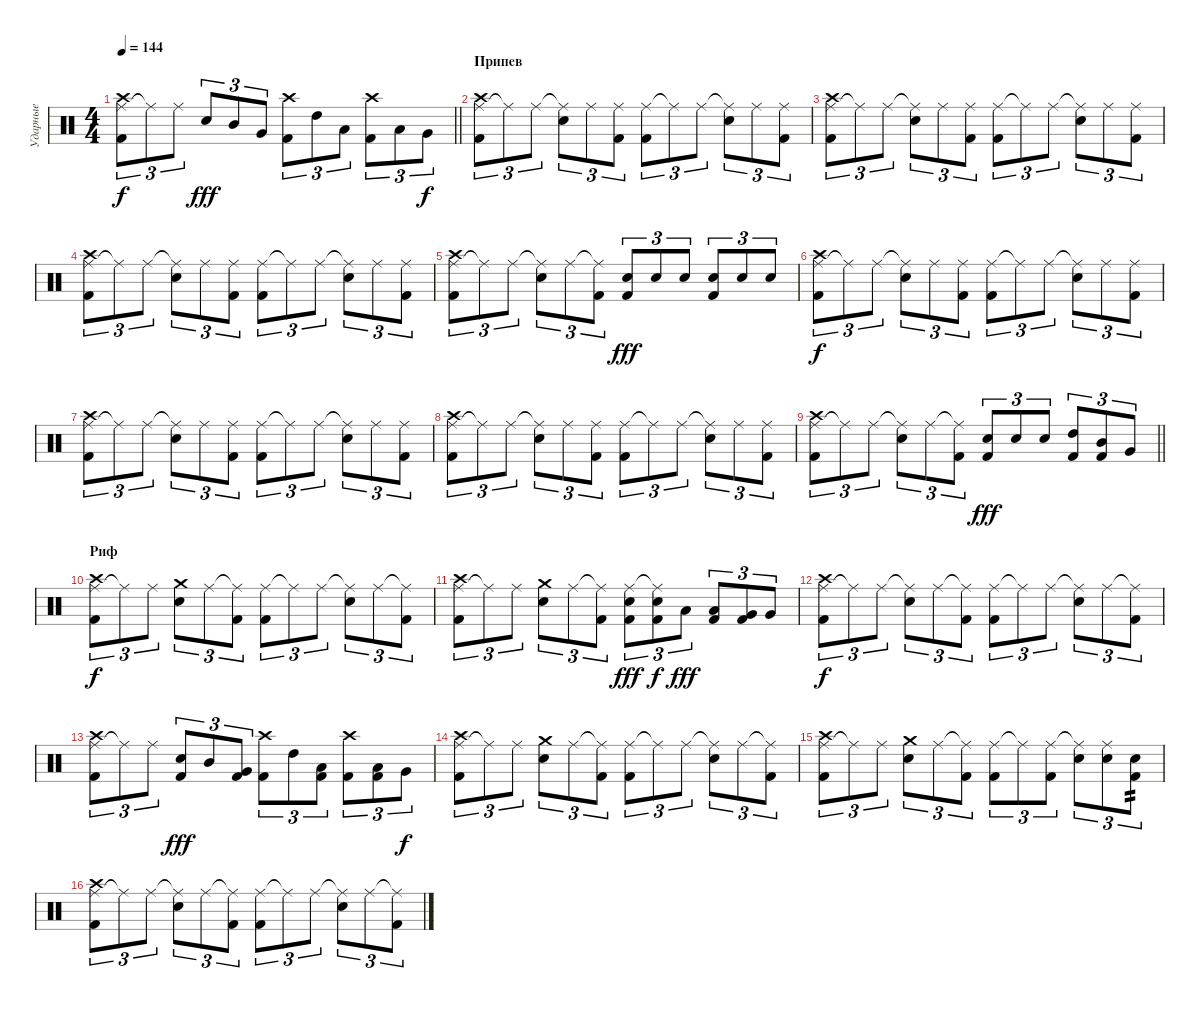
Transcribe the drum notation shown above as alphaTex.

\track ("Ударные" "Ударные") {instrument percussion}
\staff {score}
\articulation defaults
\ts (4 4)
\tempo 144
\clef neutral
\barLineRight lightlight
\ks c
("Ride (middle)" "Kick (hit) 2" "Crash high (hit)").8{tu (3 2) dy f} "Ride (middle)"{t}.8{tu (3 2)} "Ride (middle)".8{tu (3 2)} "Snare (hit) 2".8{tu (3 2) dy fff} "Mid Tom (hit)".8{tu (3 2)} "Very Low Tom (hit)".8{tu (3 2)} ("Kick (hit) 2" "Crash high (hit)").8{tu (3 2)} "High Tom (hit)".8{tu (3 2)} "Low Tom (hit)".8{tu (3 2)} ("Crash high (hit)" "Kick (hit) 2").8{tu (3 2)} "Low Tom (hit)".8{tu (3 2)} "Very Low Tom (hit)".8{tu (3 2) dy f} |
\section ("" "Припев")
("Ride (middle)" "Kick (hit) 2" "Crash high (hit)").8{tu (3 2)} "Ride (middle)"{t}.8{tu (3 2)} "Ride (middle)".8{tu (3 2)} ("Ride (middle)"{t} "Snare (hit) 2").8{tu (3 2)} "Ride (middle)".8{tu (3 2)} ("Ride (middle)" "Kick (hit) 2").8{tu (3 2)} ("Ride (middle)" "Kick (hit) 2").8{tu (3 2)} "Ride (middle)"{t}.8{tu (3 2)} "Ride (middle)".8{tu (3 2)} ("Ride (middle)"{t} "Snare (hit) 2").8{tu (3 2)} "Ride (middle)".8{tu (3 2)} ("Ride (middle)" "Kick (hit) 2").8{tu (3 2)} |
("Ride (middle)" "Kick (hit) 2" "Crash high (hit)").8{tu (3 2)} "Ride (middle)"{t}.8{tu (3 2)} "Ride (middle)".8{tu (3 2)} ("Ride (middle)"{t} "Snare (hit) 2").8{tu (3 2)} "Ride (middle)".8{tu (3 2)} ("Ride (middle)" "Kick (hit) 2").8{tu (3 2)} ("Ride (middle)" "Kick (hit) 2").8{tu (3 2)} "Ride (middle)"{t}.8{tu (3 2)} "Ride (middle)".8{tu (3 2)} ("Ride (middle)"{t} "Snare (hit) 2").8{tu (3 2)} "Ride (middle)".8{tu (3 2)} ("Ride (middle)" "Kick (hit) 2").8{tu (3 2)} |
("Ride (middle)" "Kick (hit) 2" "Crash high (hit)").8{tu (3 2)} "Ride (middle)"{t}.8{tu (3 2)} "Ride (middle)".8{tu (3 2)} ("Ride (middle)"{t} "Snare (hit) 2").8{tu (3 2)} "Ride (middle)".8{tu (3 2)} ("Ride (middle)" "Kick (hit) 2").8{tu (3 2)} ("Ride (middle)" "Kick (hit) 2").8{tu (3 2)} "Ride (middle)"{t}.8{tu (3 2)} "Ride (middle)".8{tu (3 2)} ("Ride (middle)"{t} "Snare (hit) 2").8{tu (3 2)} "Ride (middle)".8{tu (3 2)} ("Ride (middle)" "Kick (hit) 2").8{tu (3 2)} |
("Ride (middle)" "Kick (hit) 2" "Crash high (hit)").8{tu (3 2)} "Ride (middle)"{t}.8{tu (3 2)} "Ride (middle)".8{tu (3 2)} ("Ride (middle)"{t} "Snare (hit) 2").8{tu (3 2)} "Ride (middle)".8{tu (3 2)} ("Ride (middle)"{t} "Kick (hit) 2").8{tu (3 2)} ("Snare (hit) 2" "Kick (hit) 2").8{tu (3 2) dy fff} "Snare (hit) 2".8{tu (3 2)} "Snare (hit) 2".8{tu (3 2)} ("Snare (hit) 2" "Kick (hit) 2").8{tu (3 2)} "Snare (hit) 2".8{tu (3 2)} "Snare (hit) 2".8{tu (3 2)} |
("Ride (middle)" "Kick (hit) 2" "Crash high (hit)").8{tu (3 2) dy f} "Ride (middle)"{t}.8{tu (3 2)} "Ride (middle)".8{tu (3 2)} ("Ride (middle)"{t} "Snare (hit) 2").8{tu (3 2)} "Ride (middle)".8{tu (3 2)} ("Ride (middle)" "Kick (hit) 2").8{tu (3 2)} ("Ride (middle)" "Kick (hit) 2").8{tu (3 2)} "Ride (middle)"{t}.8{tu (3 2)} "Ride (middle)".8{tu (3 2)} ("Ride (middle)"{t} "Snare (hit) 2").8{tu (3 2)} "Ride (middle)".8{tu (3 2)} ("Ride (middle)" "Kick (hit) 2").8{tu (3 2)} |
("Ride (middle)" "Kick (hit) 2" "Crash high (hit)").8{tu (3 2)} "Ride (middle)"{t}.8{tu (3 2)} "Ride (middle)".8{tu (3 2)} ("Ride (middle)"{t} "Snare (hit) 2").8{tu (3 2)} "Ride (middle)".8{tu (3 2)} ("Ride (middle)" "Kick (hit) 2").8{tu (3 2)} ("Ride (middle)" "Kick (hit) 2").8{tu (3 2)} "Ride (middle)"{t}.8{tu (3 2)} "Ride (middle)".8{tu (3 2)} ("Ride (middle)"{t} "Snare (hit) 2").8{tu (3 2)} "Ride (middle)".8{tu (3 2)} ("Ride (middle)" "Kick (hit) 2").8{tu (3 2)} |
("Ride (middle)" "Kick (hit) 2" "Crash high (hit)").8{tu (3 2)} "Ride (middle)"{t}.8{tu (3 2)} "Ride (middle)".8{tu (3 2)} ("Ride (middle)"{t} "Snare (hit) 2").8{tu (3 2)} "Ride (middle)".8{tu (3 2)} ("Ride (middle)" "Kick (hit) 2").8{tu (3 2)} ("Ride (middle)" "Kick (hit) 2").8{tu (3 2)} "Ride (middle)"{t}.8{tu (3 2)} "Ride (middle)".8{tu (3 2)} ("Ride (middle)"{t} "Snare (hit) 2").8{tu (3 2)} "Ride (middle)".8{tu (3 2)} ("Ride (middle)" "Kick (hit) 2").8{tu (3 2)} |
\barLineRight lightlight
("Ride (middle)" "Kick (hit) 2" "Crash high (hit)").8{tu (3 2)} "Ride (middle)"{t}.8{tu (3 2)} "Ride (middle)".8{tu (3 2)} ("Ride (middle)"{t} "Snare (hit) 2").8{tu (3 2)} "Ride (middle)".8{tu (3 2)} ("Ride (middle)"{t} "Kick (hit) 2").8{tu (3 2)} ("Snare (hit) 2" "Kick (hit) 2").8{tu (3 2) dy fff} "Snare (hit) 2".8{tu (3 2)} "Snare (hit) 2".8{tu (3 2)} ("High Tom (hit)" "Kick (hit) 2").8{tu (3 2)} ("Mid Tom (hit)" "Kick (hit) 2").8{tu (3 2)} "Very Low Tom (hit)".8{tu (3 2)} |
\section ("" "Риф")
("Ride (middle)" "Kick (hit) 2" "Crash high (hit)").8{tu (3 2) dy f} "Ride (middle)"{t}.8{tu (3 2)} "Ride (middle)".8{tu (3 2)} ("Crash medium (hit)" "Snare (hit) 2").8{tu (3 2)} "Ride (middle)".8{tu (3 2)} ("Ride (middle)"{t} "Kick (hit) 2").8{tu (3 2)} ("Ride (middle)" "Kick (hit) 2").8{tu (3 2)} "Ride (middle)"{t}.8{tu (3 2)} "Ride (middle)".8{tu (3 2)} ("Ride (middle)"{t} "Snare (hit) 2").8{tu (3 2)} "Ride (middle)".8{tu (3 2)} ("Ride (middle)"{t} "Kick (hit) 2").8{tu (3 2)} |
("Ride (middle)" "Kick (hit) 2" "Crash high (hit)").8{tu (3 2)} "Ride (middle)"{t}.8{tu (3 2)} "Ride (middle)".8{tu (3 2)} ("Crash medium (hit)" "Snare (hit) 2").8{tu (3 2)} "Ride (middle)".8{tu (3 2)} ("Ride (middle)"{t} "Kick (hit) 2").8{tu (3 2)} ("Snare (hit) 2" "Ride (middle)" "Kick (hit) 2").8{tu (3 2) dy fff} ("Snare (hit) 2" "Ride (middle)"{t} "Kick (hit) 2").8{tu (3 2) dy f} "Low Tom (hit)".8{tu (3 2) dy fff} ("Low Tom (hit)" "Kick (hit) 2").8{tu (3 2)} ("Very Low Tom (hit)" "Kick (hit) 2").8{tu (3 2)} "Very Low Tom (hit)".8{tu (3 2)} |
("Ride (middle)" "Kick (hit) 2" "Crash high (hit)").8{tu (3 2) dy f} "Ride (middle)"{t}.8{tu (3 2)} "Ride (middle)".8{tu (3 2)} ("Ride (middle)"{t} "Snare (hit) 2").8{tu (3 2)} "Ride (middle)".8{tu (3 2)} ("Ride (middle)"{t} "Kick (hit) 2").8{tu (3 2)} ("Ride (middle)" "Kick (hit) 2").8{tu (3 2)} "Ride (middle)"{t}.8{tu (3 2)} "Ride (middle)".8{tu (3 2)} ("Ride (middle)"{t} "Snare (hit) 2").8{tu (3 2)} "Ride (middle)".8{tu (3 2)} ("Ride (middle)"{t} "Kick (hit) 2").8{tu (3 2)} |
("Ride (middle)" "Kick (hit) 2" "Crash high (hit)").8{tu (3 2)} "Ride (middle)"{t}.8{tu (3 2)} "Ride (middle)".8{tu (3 2)} ("Snare (hit) 2" "Kick (hit) 2").8{tu (3 2) dy fff} "Mid Tom (hit)".8{tu (3 2)} ("Very Low Tom (hit)" "Kick (hit) 2").8{tu (3 2)} ("Kick (hit) 2" "Crash high (hit)").8{tu (3 2)} "High Tom (hit)".8{tu (3 2)} ("Low Tom (hit)" "Kick (hit) 2").8{tu (3 2)} ("Crash high (hit)" "Kick (hit) 2").8{tu (3 2)} ("Low Tom (hit)" "Kick (hit) 2").8{tu (3 2)} "Very Low Tom (hit)".8{tu (3 2) dy f} |
("Ride (middle)" "Kick (hit) 2" "Crash high (hit)").8{tu (3 2)} "Ride (middle)"{t}.8{tu (3 2)} "Ride (middle)".8{tu (3 2)} ("Crash medium (hit)" "Snare (hit) 2").8{tu (3 2)} "Ride (middle)".8{tu (3 2)} ("Ride (middle)"{t} "Kick (hit) 2").8{tu (3 2)} ("Ride (middle)" "Kick (hit) 2").8{tu (3 2)} "Ride (middle)"{t}.8{tu (3 2)} "Ride (middle)".8{tu (3 2)} ("Ride (middle)"{t} "Snare (hit) 2").8{tu (3 2)} "Ride (middle)".8{tu (3 2)} ("Ride (middle)"{t} "Kick (hit) 2").8{tu (3 2)} |
("Ride (middle)" "Kick (hit) 2" "Crash high (hit)").8{tu (3 2)} "Ride (middle)"{t}.8{tu (3 2)} "Ride (middle)".8{tu (3 2)} ("Crash medium (hit)" "Snare (hit) 2").8{tu (3 2)} "Ride (middle)".8{tu (3 2)} ("Ride (middle)"{t} "Kick (hit) 2").8{tu (3 2)} ("Ride (middle)" "Kick (hit) 2").8{tu (3 2)} "Ride (middle)"{t}.8{tu (3 2)} ("Ride (middle)" "Kick (hit) 2").8{tu (3 2)} ("Ride (middle)"{t} "Snare (hit) 2").8{tu (3 2)} ("Ride (middle)" "Snare (hit) 2").8{tu (3 2)} ("Snare (hit) 2" "Kick (hit) 2").8{tu (3 2) tp 2} |
("Ride (middle)" "Kick (hit) 2" "Crash high (hit)").8{tu (3 2)} "Ride (middle)"{t}.8{tu (3 2)} "Ride (middle)".8{tu (3 2)} ("Ride (middle)"{t} "Snare (hit) 2").8{tu (3 2)} "Ride (middle)".8{tu (3 2)} ("Ride (middle)"{t} "Kick (hit) 2").8{tu (3 2)} ("Ride (middle)" "Kick (hit) 2").8{tu (3 2)} "Ride (middle)"{t}.8{tu (3 2)} "Ride (middle)".8{tu (3 2)} ("Ride (middle)"{t} "Snare (hit) 2").8{tu (3 2)} "Ride (middle)".8{tu (3 2)} ("Ride (middle)"{t} "Kick (hit) 2").8{tu (3 2)}
